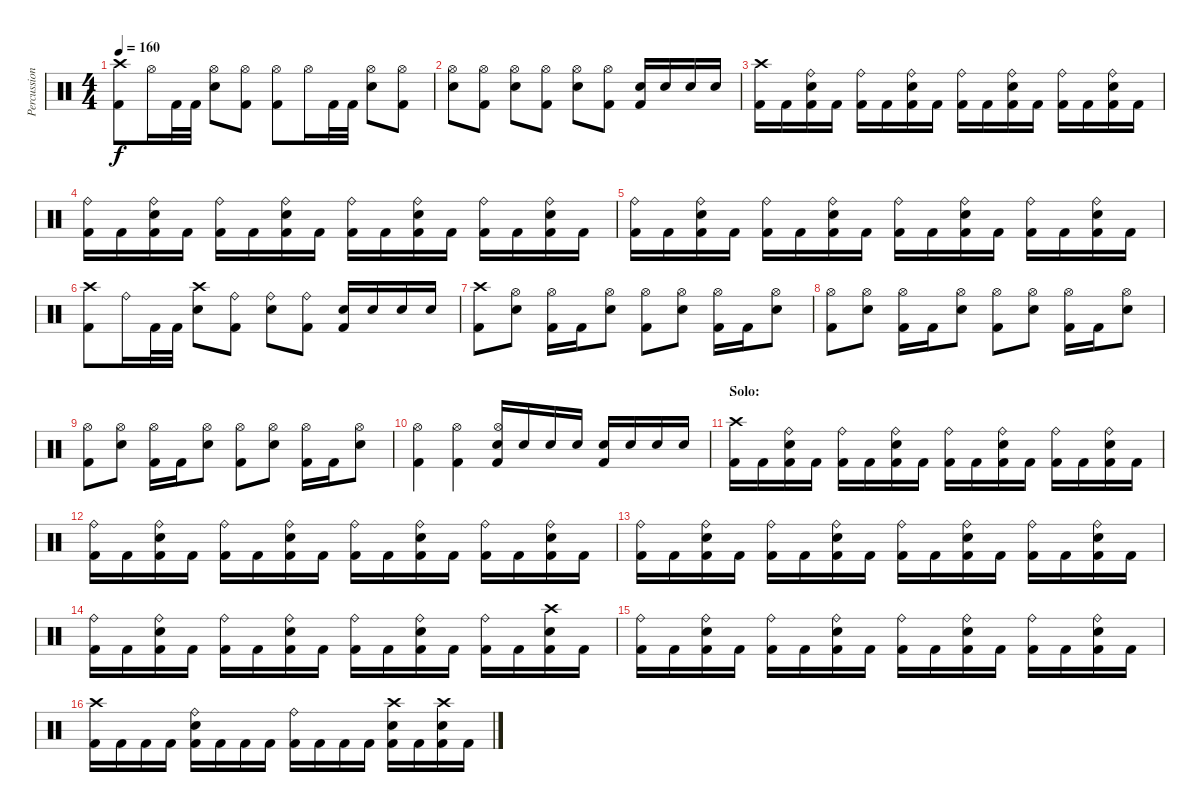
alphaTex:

\track ("Percussion" "Percussion") {instrument percussion}
\staff {score}
\articulation defaults
\ts (4 4)
\tempo 160
\clef neutral
\ks c
("Crash high (hit)" "Kick (hit) 2").8{dy f} "Hi-Hat (open)".16 "Kick (hit) 2".32 "Kick (hit) 2".32 ("Hi-Hat (open)" "Electric Snare (hit)").8 ("Hi-Hat (open)" "Kick (hit) 2").8 ("Hi-Hat (open)" "Kick (hit) 2").8 "Hi-Hat (open)".16 "Kick (hit) 2".32 "Kick (hit) 2".32 ("Hi-Hat (open)" "Electric Snare (hit)").8 ("Hi-Hat (open)" "Kick (hit) 2").8 |
("Hi-Hat (open)" "Electric Snare (hit)").8 ("Hi-Hat (open)" "Kick (hit) 2").8 ("Hi-Hat (open)" "Electric Snare (hit)").8 ("Hi-Hat (open)" "Kick (hit) 2").8 ("Hi-Hat (open)" "Electric Snare (hit)").8 ("Hi-Hat (open)" "Kick (hit) 2").8 ("Electric Snare (hit)" "Kick (hit) 2").16 "Electric Snare (hit)".16 "Electric Snare (hit)".16 "Electric Snare (hit)".16 |
("Crash high (hit)" "Kick (hit) 2").16 "Kick (hit) 2".16 ("Ride (bell)" "Electric Snare (hit)" "Kick (hit) 2").16 "Kick (hit) 2".16 ("Ride (bell)" "Kick (hit) 2").16 "Kick (hit) 2".16 ("Ride (bell)" "Electric Snare (hit)" "Kick (hit) 2").16 "Kick (hit) 2".16 ("Ride (bell)" "Kick (hit) 2").16 "Kick (hit) 2".16 ("Ride (bell)" "Electric Snare (hit)" "Kick (hit) 2").16 "Kick (hit) 2".16 ("Ride (bell)" "Kick (hit) 2").16 "Kick (hit) 2".16 ("Ride (bell)" "Electric Snare (hit)" "Kick (hit) 2").16 "Kick (hit) 2".16 |
("Ride (bell)" "Kick (hit) 2").16 "Kick (hit) 2".16 ("Ride (bell)" "Electric Snare (hit)" "Kick (hit) 2").16 "Kick (hit) 2".16 ("Ride (bell)" "Kick (hit) 2").16 "Kick (hit) 2".16 ("Ride (bell)" "Electric Snare (hit)" "Kick (hit) 2").16 "Kick (hit) 2".16 ("Ride (bell)" "Kick (hit) 2").16 "Kick (hit) 2".16 ("Ride (bell)" "Electric Snare (hit)" "Kick (hit) 2").16 "Kick (hit) 2".16 ("Ride (bell)" "Kick (hit) 2").16 "Kick (hit) 2".16 ("Ride (bell)" "Electric Snare (hit)" "Kick (hit) 2").16 "Kick (hit) 2".16 |
("Ride (bell)" "Kick (hit) 2").16 "Kick (hit) 2".16 ("Ride (bell)" "Electric Snare (hit)" "Kick (hit) 2").16 "Kick (hit) 2".16 ("Ride (bell)" "Kick (hit) 2").16 "Kick (hit) 2".16 ("Ride (bell)" "Electric Snare (hit)" "Kick (hit) 2").16 "Kick (hit) 2".16 ("Ride (bell)" "Kick (hit) 2").16 "Kick (hit) 2".16 ("Ride (bell)" "Electric Snare (hit)" "Kick (hit) 2").16 "Kick (hit) 2".16 ("Ride (bell)" "Kick (hit) 2").16 "Kick (hit) 2".16 ("Ride (bell)" "Electric Snare (hit)" "Kick (hit) 2").16 "Kick (hit) 2".16 |
("Crash high (hit)" "Kick (hit) 2").8 "Ride (bell)".16 "Kick (hit) 2".32 "Kick (hit) 2".32 ("Crash high (hit)" "Electric Snare (hit)").8 ("Ride (bell)" "Kick (hit) 2").8 ("Ride (bell)" "Electric Snare (hit)").8 ("Ride (bell)" "Kick (hit) 2").8 ("Electric Snare (hit)" "Kick (hit) 2").16 "Electric Snare (hit)".16 "Electric Snare (hit)".16 "Electric Snare (hit)".16 |
("Crash high (hit)" "Kick (hit) 2").8 ("Hi-Hat (open)" "Electric Snare (hit)").8 ("Hi-Hat (open)" "Kick (hit) 2").16 "Kick (hit) 2".16 ("Hi-Hat (open)" "Electric Snare (hit)").8 ("Hi-Hat (open)" "Kick (hit) 2").8 ("Hi-Hat (open)" "Electric Snare (hit)").8 ("Hi-Hat (open)" "Kick (hit) 2").16 "Kick (hit) 2".16 ("Hi-Hat (open)" "Electric Snare (hit)").8 |
("Hi-Hat (open)" "Kick (hit) 2").8 ("Hi-Hat (open)" "Electric Snare (hit)").8 ("Hi-Hat (open)" "Kick (hit) 2").16 "Kick (hit) 2".16 ("Hi-Hat (open)" "Electric Snare (hit)").8 ("Hi-Hat (open)" "Kick (hit) 2").8 ("Hi-Hat (open)" "Electric Snare (hit)").8 ("Hi-Hat (open)" "Kick (hit) 2").16 "Kick (hit) 2".16 ("Hi-Hat (open)" "Electric Snare (hit)").8 |
("Hi-Hat (open)" "Kick (hit) 2").8 ("Hi-Hat (open)" "Electric Snare (hit)").8 ("Hi-Hat (open)" "Kick (hit) 2").16 "Kick (hit) 2".16 ("Hi-Hat (open)" "Electric Snare (hit)").8 ("Hi-Hat (open)" "Kick (hit) 2").8 ("Hi-Hat (open)" "Electric Snare (hit)").8 ("Hi-Hat (open)" "Kick (hit) 2").16 "Kick (hit) 2".16 ("Hi-Hat (open)" "Electric Snare (hit)").8 |
("Hi-Hat (open)" "Kick (hit) 2").4 ("Hi-Hat (open)" "Kick (hit) 2").4 ("Hi-Hat (open)" "Electric Snare (hit)" "Kick (hit) 2").16 "Electric Snare (hit)".16 "Electric Snare (hit)".16 "Electric Snare (hit)".16 ("Electric Snare (hit)" "Kick (hit) 2").16 "Electric Snare (hit)".16 "Electric Snare (hit)".16 "Electric Snare (hit)".16 |
\section ("" "Solo:")
("Crash high (hit)" "Kick (hit) 2").16 "Kick (hit) 2".16 ("Ride (bell)" "Electric Snare (hit)" "Kick (hit) 2").16 "Kick (hit) 2".16 ("Ride (bell)" "Kick (hit) 2").16 "Kick (hit) 2".16 ("Ride (bell)" "Electric Snare (hit)" "Kick (hit) 2").16 "Kick (hit) 2".16 ("Ride (bell)" "Kick (hit) 2").16 "Kick (hit) 2".16 ("Ride (bell)" "Electric Snare (hit)" "Kick (hit) 2").16 "Kick (hit) 2".16 ("Ride (bell)" "Kick (hit) 2").16 "Kick (hit) 2".16 ("Ride (bell)" "Electric Snare (hit)" "Kick (hit) 2").16 "Kick (hit) 2".16 |
("Ride (bell)" "Kick (hit) 2").16 "Kick (hit) 2".16 ("Ride (bell)" "Electric Snare (hit)" "Kick (hit) 2").16 "Kick (hit) 2".16 ("Ride (bell)" "Kick (hit) 2").16 "Kick (hit) 2".16 ("Ride (bell)" "Electric Snare (hit)" "Kick (hit) 2").16 "Kick (hit) 2".16 ("Ride (bell)" "Kick (hit) 2").16 "Kick (hit) 2".16 ("Ride (bell)" "Electric Snare (hit)" "Kick (hit) 2").16 "Kick (hit) 2".16 ("Ride (bell)" "Kick (hit) 2").16 "Kick (hit) 2".16 ("Ride (bell)" "Electric Snare (hit)" "Kick (hit) 2").16 "Kick (hit) 2".16 |
("Ride (bell)" "Kick (hit) 2").16 "Kick (hit) 2".16 ("Ride (bell)" "Electric Snare (hit)" "Kick (hit) 2").16 "Kick (hit) 2".16 ("Ride (bell)" "Kick (hit) 2").16 "Kick (hit) 2".16 ("Ride (bell)" "Electric Snare (hit)" "Kick (hit) 2").16 "Kick (hit) 2".16 ("Ride (bell)" "Kick (hit) 2").16 "Kick (hit) 2".16 ("Ride (bell)" "Electric Snare (hit)" "Kick (hit) 2").16 "Kick (hit) 2".16 ("Ride (bell)" "Kick (hit) 2").16 "Kick (hit) 2".16 ("Ride (bell)" "Electric Snare (hit)" "Kick (hit) 2").16 "Kick (hit) 2".16 |
("Ride (bell)" "Kick (hit) 2").16 "Kick (hit) 2".16 ("Ride (bell)" "Electric Snare (hit)" "Kick (hit) 2").16 "Kick (hit) 2".16 ("Ride (bell)" "Kick (hit) 2").16 "Kick (hit) 2".16 ("Ride (bell)" "Electric Snare (hit)" "Kick (hit) 2").16 "Kick (hit) 2".16 ("Ride (bell)" "Kick (hit) 2").16 "Kick (hit) 2".16 ("Ride (bell)" "Electric Snare (hit)" "Kick (hit) 2").16 "Kick (hit) 2".16 ("Ride (bell)" "Kick (hit) 2").16 "Kick (hit) 2".16 ("Crash high (hit)" "Electric Snare (hit)" "Kick (hit) 2").16 "Kick (hit) 2".16 |
("Ride (bell)" "Kick (hit) 2").16 "Kick (hit) 2".16 ("Ride (bell)" "Electric Snare (hit)" "Kick (hit) 2").16 "Kick (hit) 2".16 ("Ride (bell)" "Kick (hit) 2").16 "Kick (hit) 2".16 ("Ride (bell)" "Electric Snare (hit)" "Kick (hit) 2").16 "Kick (hit) 2".16 ("Ride (bell)" "Kick (hit) 2").16 "Kick (hit) 2".16 ("Ride (bell)" "Electric Snare (hit)" "Kick (hit) 2").16 "Kick (hit) 2".16 ("Ride (bell)" "Kick (hit) 2").16 "Kick (hit) 2".16 ("Ride (bell)" "Electric Snare (hit)" "Kick (hit) 2").16 "Kick (hit) 2".16 |
("Crash high (hit)" "Kick (hit) 2").16 "Kick (hit) 2".16 "Kick (hit) 2".16 "Kick (hit) 2".16 ("Ride (bell)" "Electric Snare (hit)" "Kick (hit) 2").16 "Kick (hit) 2".16 "Kick (hit) 2".16 "Kick (hit) 2".16 ("Ride (bell)" "Kick (hit) 2").16 "Kick (hit) 2".16 "Kick (hit) 2".16 "Kick (hit) 2".16 ("Crash high (hit)" "Electric Snare (hit)" "Kick (hit) 2").16 "Kick (hit) 2".16 ("Crash high (hit)" "Electric Snare (hit)" "Kick (hit) 2").16 "Kick (hit) 2".16
